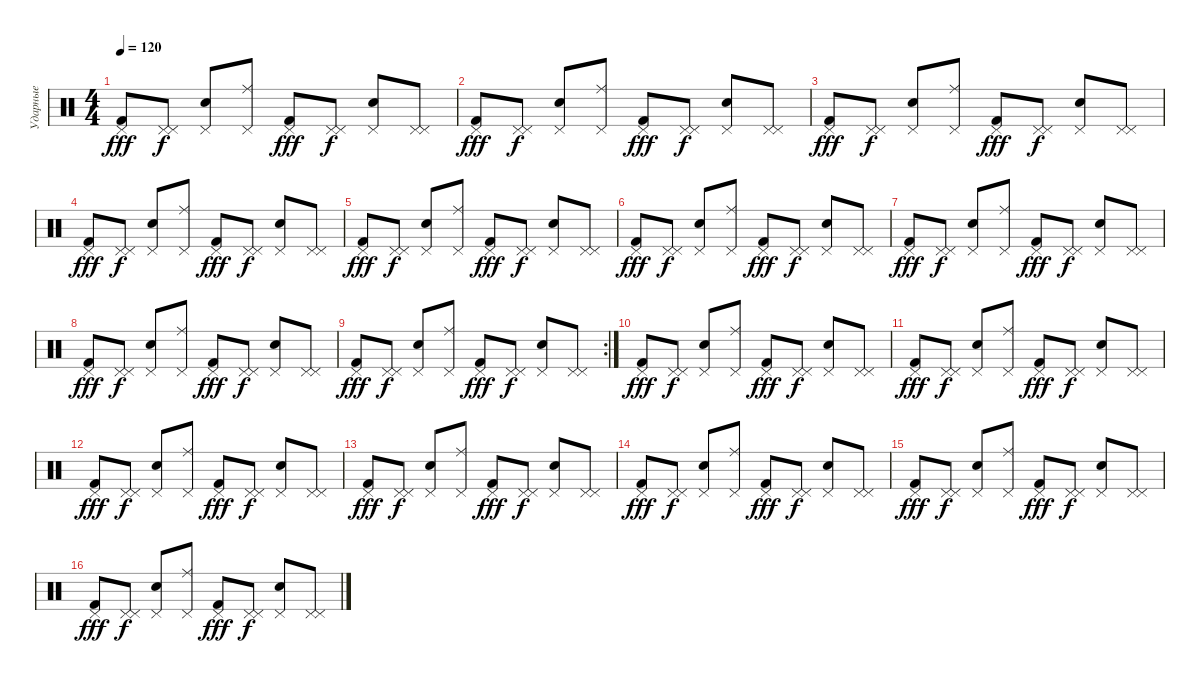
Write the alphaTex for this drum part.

\track ("Ударные" "Ударные") {instrument percussion}
\staff {score}
\articulation defaults
\ts (4 4)
\tempo 120
\clef neutral
\ks c
("Pedal Hi-Hat (hit)" "Kick (hit) 2").8{dy fff} ("Pedal Hi-Hat (hit)" "Pedal Hi-Hat (hit)").8{dy f} ("Pedal Hi-Hat (hit)" "Hand Clap (hit)").8 ("Pedal Hi-Hat (hit)" "Ride (middle)").8 ("Pedal Hi-Hat (hit)" "Kick (hit) 2").8{dy fff} ("Pedal Hi-Hat (hit)" "Pedal Hi-Hat (hit)").8{dy f} ("Pedal Hi-Hat (hit)" "Hand Clap (hit)").8 ("Pedal Hi-Hat (hit)" "Pedal Hi-Hat (hit)").8 |
("Pedal Hi-Hat (hit)" "Kick (hit) 2").8{dy fff} ("Pedal Hi-Hat (hit)" "Pedal Hi-Hat (hit)").8{dy f} ("Pedal Hi-Hat (hit)" "Hand Clap (hit)").8 ("Pedal Hi-Hat (hit)" "Ride (middle)").8 ("Pedal Hi-Hat (hit)" "Kick (hit) 2").8{dy fff} ("Pedal Hi-Hat (hit)" "Pedal Hi-Hat (hit)").8{dy f} ("Pedal Hi-Hat (hit)" "Hand Clap (hit)").8 ("Pedal Hi-Hat (hit)" "Pedal Hi-Hat (hit)").8 |
("Pedal Hi-Hat (hit)" "Kick (hit) 2").8{dy fff} ("Pedal Hi-Hat (hit)" "Pedal Hi-Hat (hit)").8{dy f} ("Pedal Hi-Hat (hit)" "Hand Clap (hit)").8 ("Pedal Hi-Hat (hit)" "Ride (middle)").8 ("Pedal Hi-Hat (hit)" "Kick (hit) 2").8{dy fff} ("Pedal Hi-Hat (hit)" "Pedal Hi-Hat (hit)").8{dy f} ("Pedal Hi-Hat (hit)" "Hand Clap (hit)").8 ("Pedal Hi-Hat (hit)" "Pedal Hi-Hat (hit)").8 |
("Pedal Hi-Hat (hit)" "Kick (hit) 2").8{dy fff} ("Pedal Hi-Hat (hit)" "Pedal Hi-Hat (hit)").8{dy f} ("Pedal Hi-Hat (hit)" "Hand Clap (hit)").8 ("Pedal Hi-Hat (hit)" "Ride (middle)").8 ("Pedal Hi-Hat (hit)" "Kick (hit) 2").8{dy fff} ("Pedal Hi-Hat (hit)" "Pedal Hi-Hat (hit)").8{dy f} ("Pedal Hi-Hat (hit)" "Hand Clap (hit)").8 ("Pedal Hi-Hat (hit)" "Pedal Hi-Hat (hit)").8 |
("Pedal Hi-Hat (hit)" "Kick (hit) 2").8{dy fff} ("Pedal Hi-Hat (hit)" "Pedal Hi-Hat (hit)").8{dy f} ("Pedal Hi-Hat (hit)" "Hand Clap (hit)").8 ("Pedal Hi-Hat (hit)" "Ride (middle)").8 ("Pedal Hi-Hat (hit)" "Kick (hit) 2").8{dy fff} ("Pedal Hi-Hat (hit)" "Pedal Hi-Hat (hit)").8{dy f} ("Pedal Hi-Hat (hit)" "Hand Clap (hit)").8 ("Pedal Hi-Hat (hit)" "Pedal Hi-Hat (hit)").8 |
("Pedal Hi-Hat (hit)" "Kick (hit) 2").8{dy fff} ("Pedal Hi-Hat (hit)" "Pedal Hi-Hat (hit)").8{dy f} ("Pedal Hi-Hat (hit)" "Hand Clap (hit)").8 ("Pedal Hi-Hat (hit)" "Ride (middle)").8 ("Pedal Hi-Hat (hit)" "Kick (hit) 2").8{dy fff} ("Pedal Hi-Hat (hit)" "Pedal Hi-Hat (hit)").8{dy f} ("Pedal Hi-Hat (hit)" "Hand Clap (hit)").8 ("Pedal Hi-Hat (hit)" "Pedal Hi-Hat (hit)").8 |
("Pedal Hi-Hat (hit)" "Kick (hit) 2").8{dy fff} ("Pedal Hi-Hat (hit)" "Pedal Hi-Hat (hit)").8{dy f} ("Pedal Hi-Hat (hit)" "Hand Clap (hit)").8 ("Pedal Hi-Hat (hit)" "Ride (middle)").8 ("Pedal Hi-Hat (hit)" "Kick (hit) 2").8{dy fff} ("Pedal Hi-Hat (hit)" "Pedal Hi-Hat (hit)").8{dy f} ("Pedal Hi-Hat (hit)" "Hand Clap (hit)").8 ("Pedal Hi-Hat (hit)" "Pedal Hi-Hat (hit)").8 |
("Pedal Hi-Hat (hit)" "Kick (hit) 2").8{dy fff} ("Pedal Hi-Hat (hit)" "Pedal Hi-Hat (hit)").8{dy f} ("Pedal Hi-Hat (hit)" "Hand Clap (hit)").8 ("Pedal Hi-Hat (hit)" "Ride (middle)").8 ("Pedal Hi-Hat (hit)" "Kick (hit) 2").8{dy fff} ("Pedal Hi-Hat (hit)" "Pedal Hi-Hat (hit)").8{dy f} ("Pedal Hi-Hat (hit)" "Hand Clap (hit)").8 ("Pedal Hi-Hat (hit)" "Pedal Hi-Hat (hit)").8 |
\rc 2
("Pedal Hi-Hat (hit)" "Kick (hit) 2").8{dy fff} ("Pedal Hi-Hat (hit)" "Pedal Hi-Hat (hit)").8{dy f} ("Pedal Hi-Hat (hit)" "Hand Clap (hit)").8 ("Pedal Hi-Hat (hit)" "Ride (middle)").8 ("Pedal Hi-Hat (hit)" "Kick (hit) 2").8{dy fff} ("Pedal Hi-Hat (hit)" "Pedal Hi-Hat (hit)").8{dy f} ("Pedal Hi-Hat (hit)" "Hand Clap (hit)").8 ("Pedal Hi-Hat (hit)" "Pedal Hi-Hat (hit)").8 |
("Pedal Hi-Hat (hit)" "Kick (hit) 2").8{dy fff} ("Pedal Hi-Hat (hit)" "Pedal Hi-Hat (hit)").8{dy f} ("Pedal Hi-Hat (hit)" "Hand Clap (hit)").8 ("Pedal Hi-Hat (hit)" "Ride (middle)").8 ("Pedal Hi-Hat (hit)" "Kick (hit) 2").8{dy fff} ("Pedal Hi-Hat (hit)" "Pedal Hi-Hat (hit)").8{dy f} ("Pedal Hi-Hat (hit)" "Hand Clap (hit)").8 ("Pedal Hi-Hat (hit)" "Pedal Hi-Hat (hit)").8 |
("Pedal Hi-Hat (hit)" "Kick (hit) 2").8{dy fff} ("Pedal Hi-Hat (hit)" "Pedal Hi-Hat (hit)").8{dy f} ("Pedal Hi-Hat (hit)" "Hand Clap (hit)").8 ("Pedal Hi-Hat (hit)" "Ride (middle)").8 ("Pedal Hi-Hat (hit)" "Kick (hit) 2").8{dy fff} ("Pedal Hi-Hat (hit)" "Pedal Hi-Hat (hit)").8{dy f} ("Pedal Hi-Hat (hit)" "Hand Clap (hit)").8 ("Pedal Hi-Hat (hit)" "Pedal Hi-Hat (hit)").8 |
("Pedal Hi-Hat (hit)" "Kick (hit) 2").8{dy fff} ("Pedal Hi-Hat (hit)" "Pedal Hi-Hat (hit)").8{dy f} ("Pedal Hi-Hat (hit)" "Hand Clap (hit)").8 ("Pedal Hi-Hat (hit)" "Ride (middle)").8 ("Pedal Hi-Hat (hit)" "Kick (hit) 2").8{dy fff} ("Pedal Hi-Hat (hit)" "Pedal Hi-Hat (hit)").8{dy f} ("Pedal Hi-Hat (hit)" "Hand Clap (hit)").8 ("Pedal Hi-Hat (hit)" "Pedal Hi-Hat (hit)").8 |
("Pedal Hi-Hat (hit)" "Kick (hit) 2").8{dy fff} ("Pedal Hi-Hat (hit)" "Pedal Hi-Hat (hit)").8{dy f} ("Pedal Hi-Hat (hit)" "Hand Clap (hit)").8 ("Pedal Hi-Hat (hit)" "Ride (middle)").8 ("Pedal Hi-Hat (hit)" "Kick (hit) 2").8{dy fff} ("Pedal Hi-Hat (hit)" "Pedal Hi-Hat (hit)").8{dy f} ("Pedal Hi-Hat (hit)" "Hand Clap (hit)").8 ("Pedal Hi-Hat (hit)" "Pedal Hi-Hat (hit)").8 |
("Pedal Hi-Hat (hit)" "Kick (hit) 2").8{dy fff} ("Pedal Hi-Hat (hit)" "Pedal Hi-Hat (hit)").8{dy f} ("Pedal Hi-Hat (hit)" "Hand Clap (hit)").8 ("Pedal Hi-Hat (hit)" "Ride (middle)").8 ("Pedal Hi-Hat (hit)" "Kick (hit) 2").8{dy fff} ("Pedal Hi-Hat (hit)" "Pedal Hi-Hat (hit)").8{dy f} ("Pedal Hi-Hat (hit)" "Hand Clap (hit)").8 ("Pedal Hi-Hat (hit)" "Pedal Hi-Hat (hit)").8 |
("Pedal Hi-Hat (hit)" "Kick (hit) 2").8{dy fff} ("Pedal Hi-Hat (hit)" "Pedal Hi-Hat (hit)").8{dy f} ("Pedal Hi-Hat (hit)" "Hand Clap (hit)").8 ("Pedal Hi-Hat (hit)" "Ride (middle)").8 ("Pedal Hi-Hat (hit)" "Kick (hit) 2").8{dy fff} ("Pedal Hi-Hat (hit)" "Pedal Hi-Hat (hit)").8{dy f} ("Pedal Hi-Hat (hit)" "Hand Clap (hit)").8 ("Pedal Hi-Hat (hit)" "Pedal Hi-Hat (hit)").8 |
("Pedal Hi-Hat (hit)" "Kick (hit) 2").8{dy fff} ("Pedal Hi-Hat (hit)" "Pedal Hi-Hat (hit)").8{dy f} ("Pedal Hi-Hat (hit)" "Hand Clap (hit)").8 ("Pedal Hi-Hat (hit)" "Ride (middle)").8 ("Pedal Hi-Hat (hit)" "Kick (hit) 2").8{dy fff} ("Pedal Hi-Hat (hit)" "Pedal Hi-Hat (hit)").8{dy f} ("Pedal Hi-Hat (hit)" "Hand Clap (hit)").8 ("Pedal Hi-Hat (hit)" "Pedal Hi-Hat (hit)").8
